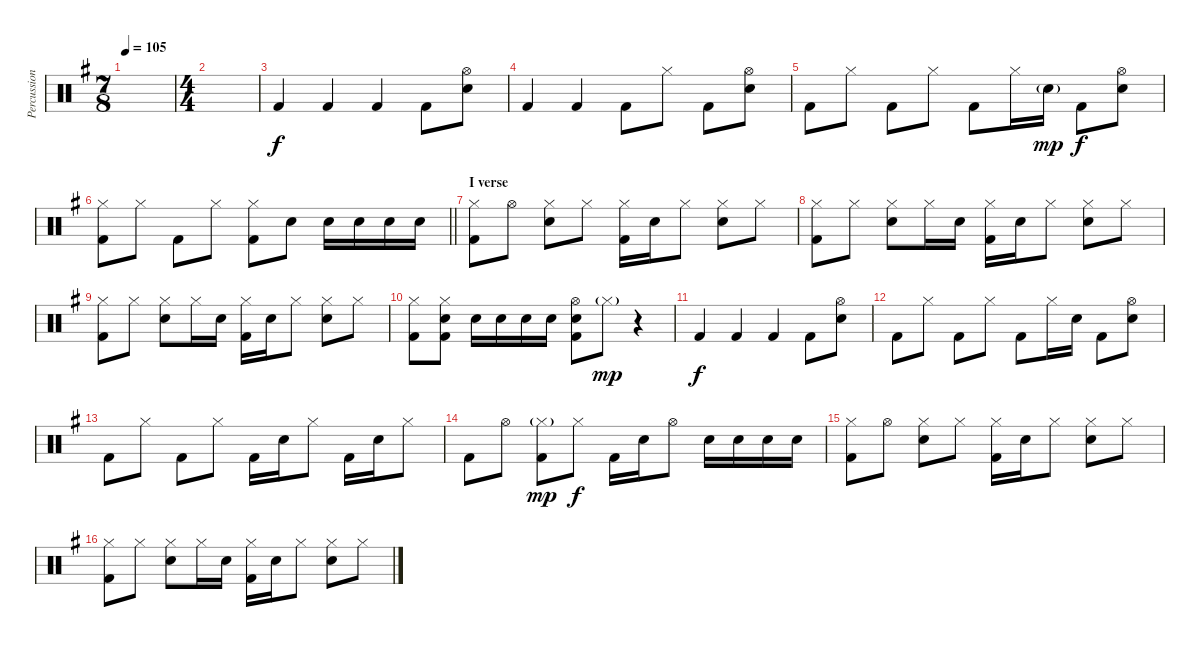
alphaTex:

\track ("Percussion" "Percussion") {instrument percussion}
\staff {score}
\articulation defaults
\ts (7 8)
\tempo 105
\clef neutral
\ks g
|
\ts (4 4)
|
"Kick (hit) 2".4 "Kick (hit) 2".4 "Kick (hit) 2".4 "Kick (hit) 2".8 ("Hi-Hat (open)" "Electric Snare (hit)").8 |
"Kick (hit) 2".4 "Kick (hit) 2".4 "Kick (hit) 2".8 "Hi-Hat (closed)".8 "Kick (hit) 2".8 ("Hi-Hat (open)" "Electric Snare (hit)").8 |
"Kick (hit) 2".8 "Hi-Hat (closed)".8 "Kick (hit) 2".8 "Hi-Hat (closed)".8 "Kick (hit) 2".8 "Hi-Hat (closed)".16 "Electric Snare (hit)"{g}.16{dy mp} "Kick (hit) 2".8{dy f} ("Hi-Hat (open)" "Electric Snare (hit)").8 |
\barLineRight lightlight
("Hi-Hat (closed)" "Kick (hit) 2").8 "Hi-Hat (closed)".8 "Kick (hit) 2".8 "Hi-Hat (closed)".8 ("Hi-Hat (closed)" "Kick (hit) 2").8 "Electric Snare (hit)".8 "Electric Snare (hit)".16 "Electric Snare (hit)".16 "Electric Snare (hit)".16 "Electric Snare (hit)".16 |
\section ("" "I verse")
("Hi-Hat (closed)" "Kick (hit) 2").8 "Hi-Hat (open)".8 ("Hi-Hat (closed)" "Electric Snare (hit)").8 "Hi-Hat (closed)".8 ("Hi-Hat (closed)" "Kick (hit) 2").16 "Electric Snare (hit)".16 "Hi-Hat (closed)".8 ("Hi-Hat (closed)" "Electric Snare (hit)").8 "Hi-Hat (closed)".8 |
("Hi-Hat (closed)" "Kick (hit) 2").8 "Hi-Hat (closed)".8 ("Hi-Hat (closed)" "Electric Snare (hit)").8 "Hi-Hat (closed)".16 "Electric Snare (hit)".16 ("Hi-Hat (closed)" "Kick (hit) 2").16 "Electric Snare (hit)".16 "Hi-Hat (closed)".8 ("Hi-Hat (closed)" "Electric Snare (hit)").8 "Hi-Hat (closed)".8 |
("Hi-Hat (closed)" "Kick (hit) 2").8 "Hi-Hat (closed)".8 ("Hi-Hat (closed)" "Electric Snare (hit)").8 "Hi-Hat (closed)".16 "Electric Snare (hit)".16 ("Hi-Hat (closed)" "Kick (hit) 2").16 "Electric Snare (hit)".16 "Hi-Hat (closed)".8 ("Hi-Hat (closed)" "Electric Snare (hit)").8 "Hi-Hat (closed)".8 |
("Hi-Hat (closed)" "Kick (hit) 2").8 ("Hi-Hat (closed)" "Electric Snare (hit)" "Kick (hit) 2").8 "Electric Snare (hit)".16 "Electric Snare (hit)".16 "Electric Snare (hit)".16 "Electric Snare (hit)".16 ("Hi-Hat (open)" "Electric Snare (hit)" "Kick (hit) 2").8 "Hi-Hat (closed)"{g}.8{dy mp} r.4 |
"Kick (hit) 2".4{dy f} "Kick (hit) 2".4 "Kick (hit) 2".4 "Kick (hit) 2".8 ("Hi-Hat (open)" "Electric Snare (hit)").8 |
"Kick (hit) 2".8 "Hi-Hat (closed)".8 "Kick (hit) 2".8 "Hi-Hat (closed)".8 "Kick (hit) 2".8 "Hi-Hat (closed)".16 "Electric Snare (hit)".16 "Kick (hit) 2".8 ("Hi-Hat (open)" "Electric Snare (hit)").8 |
"Kick (hit) 2".8 "Hi-Hat (closed)".8 "Kick (hit) 2".8 "Hi-Hat (closed)".8 "Kick (hit) 2".16 "Electric Snare (hit)".16 "Hi-Hat (closed)".8 "Kick (hit) 2".16 "Electric Snare (hit)".16 "Hi-Hat (closed)".8 |
"Kick (hit) 2".8 "Hi-Hat (open)".8 ("Hi-Hat (closed)"{g} "Kick (hit) 2").8{dy mp} "Hi-Hat (closed)".8{dy f} "Kick (hit) 2".16 "Electric Snare (hit)".16 "Hi-Hat (open)".8 "Electric Snare (hit)".16 "Electric Snare (hit)".16 "Electric Snare (hit)".16 "Electric Snare (hit)".16 |
("Hi-Hat (closed)" "Kick (hit) 2").8 "Hi-Hat (open)".8 ("Hi-Hat (closed)" "Electric Snare (hit)").8 "Hi-Hat (closed)".8 ("Hi-Hat (closed)" "Kick (hit) 2").16 "Electric Snare (hit)".16 "Hi-Hat (closed)".8 ("Hi-Hat (closed)" "Electric Snare (hit)").8 "Hi-Hat (closed)".8 |
("Hi-Hat (closed)" "Kick (hit) 2").8 "Hi-Hat (closed)".8 ("Hi-Hat (closed)" "Electric Snare (hit)").8 "Hi-Hat (closed)".16 "Electric Snare (hit)".16 ("Hi-Hat (closed)" "Kick (hit) 2").16 "Electric Snare (hit)".16 "Hi-Hat (closed)".8 ("Hi-Hat (closed)" "Electric Snare (hit)").8 "Hi-Hat (closed)".8
